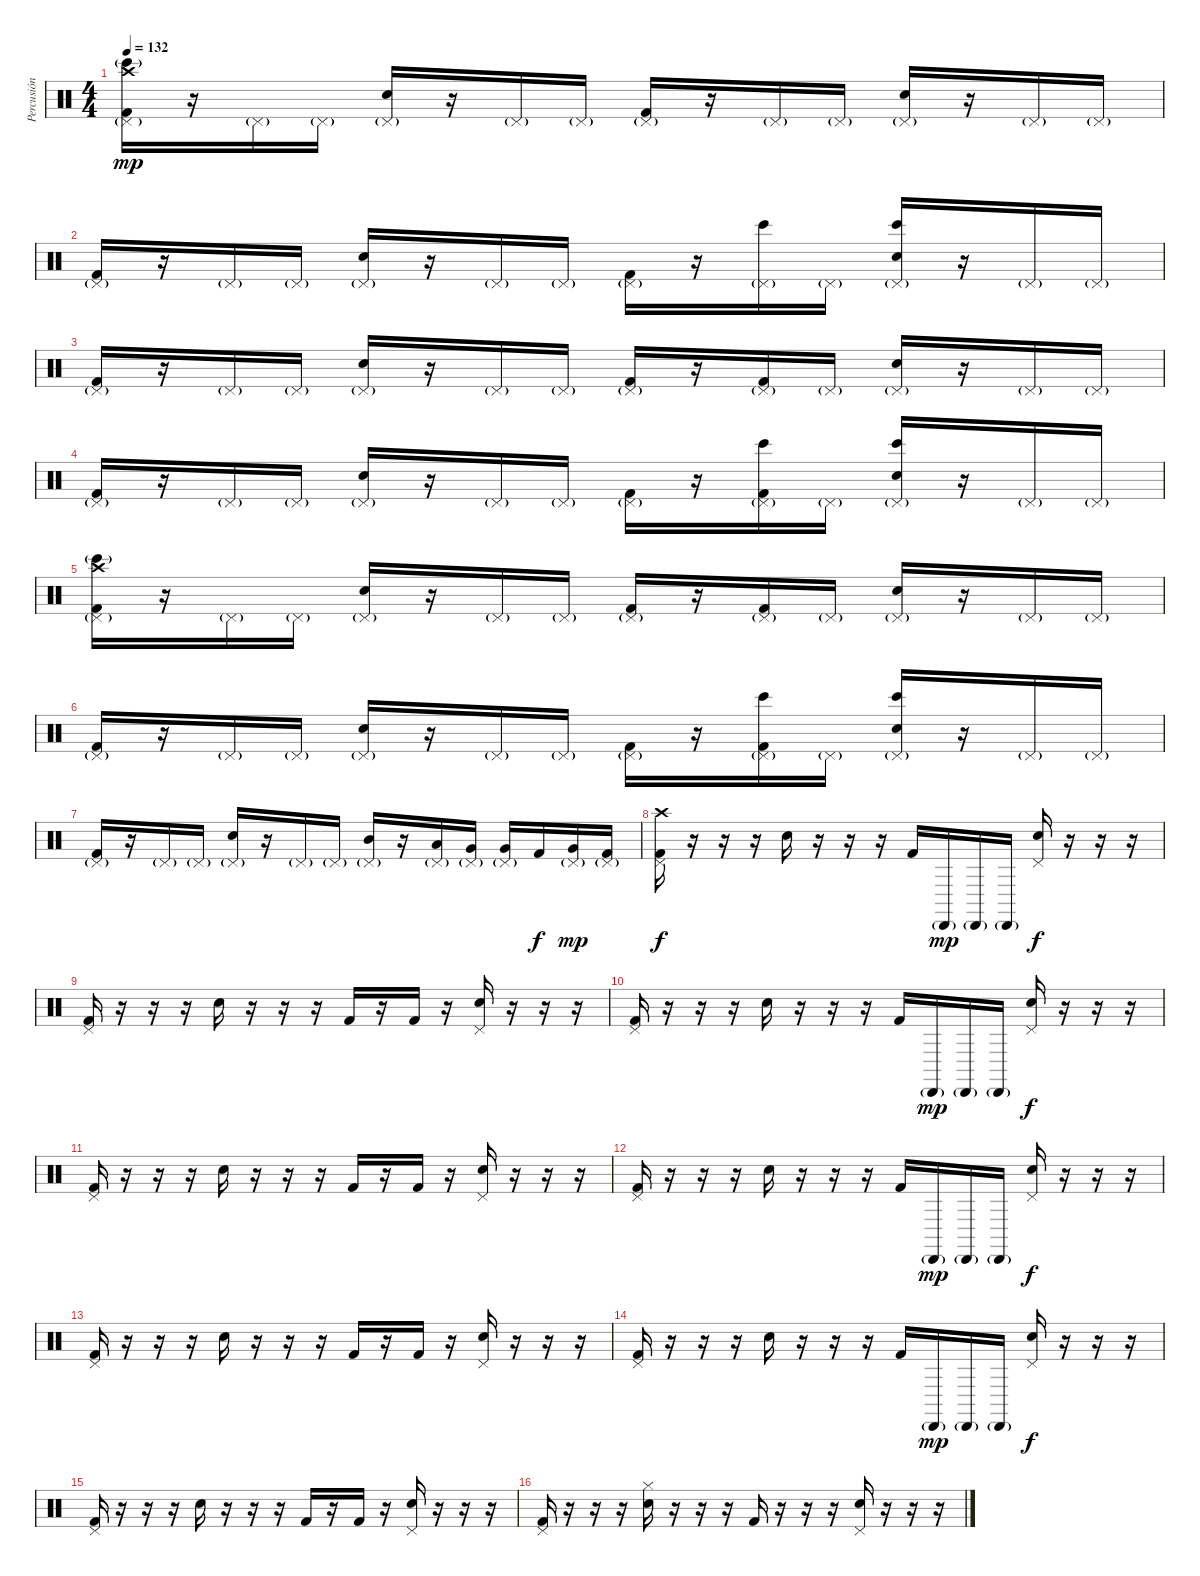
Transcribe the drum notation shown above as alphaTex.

\track ("Percusión" "Percusión") {instrument percussion}
\staff {score}
\articulation defaults
\ts (4 4)
\tempo 132
\clef neutral
\ks c
("Pedal Hi-Hat (hit)"{g} "Kick (hit) 2" "Bongo High (hit)"{g} "Crash high (hit)").16{dy mp} r.16 "Pedal Hi-Hat (hit)"{g}.16 "Pedal Hi-Hat (hit)"{g}.16 ("Pedal Hi-Hat (hit)"{g} "Electric Snare (hit)").16 r.16 "Pedal Hi-Hat (hit)"{g}.16 "Pedal Hi-Hat (hit)"{g}.16 ("Pedal Hi-Hat (hit)"{g} "Kick (hit) 2").16 r.16 "Pedal Hi-Hat (hit)"{g}.16 "Pedal Hi-Hat (hit)"{g}.16 ("Pedal Hi-Hat (hit)"{g} "Electric Snare (hit)").16 r.16 "Pedal Hi-Hat (hit)"{g}.16 "Pedal Hi-Hat (hit)"{g}.16 |
("Pedal Hi-Hat (hit)"{g} "Kick (hit) 2").16 r.16 "Pedal Hi-Hat (hit)"{g}.16 "Pedal Hi-Hat (hit)"{g}.16 ("Pedal Hi-Hat (hit)"{g} "Electric Snare (hit)").16 r.16 "Pedal Hi-Hat (hit)"{g}.16 "Pedal Hi-Hat (hit)"{g}.16 ("Pedal Hi-Hat (hit)"{g} "Kick (hit) 2").16 r.16 ("Pedal Hi-Hat (hit)"{g} "Bongo High (hit)").16 "Pedal Hi-Hat (hit)"{g}.16 ("Pedal Hi-Hat (hit)"{g} "Electric Snare (hit)" "Bongo High (hit)").16 r.16 "Pedal Hi-Hat (hit)"{g}.16 "Pedal Hi-Hat (hit)"{g}.16 |
("Pedal Hi-Hat (hit)"{g} "Kick (hit) 2").16 r.16 "Pedal Hi-Hat (hit)"{g}.16 "Pedal Hi-Hat (hit)"{g}.16 ("Pedal Hi-Hat (hit)"{g} "Electric Snare (hit)").16 r.16 "Pedal Hi-Hat (hit)"{g}.16 "Pedal Hi-Hat (hit)"{g}.16 ("Pedal Hi-Hat (hit)"{g} "Kick (hit) 2").16 r.16 ("Pedal Hi-Hat (hit)"{g} "Kick (hit) 2").16 "Pedal Hi-Hat (hit)"{g}.16 ("Pedal Hi-Hat (hit)"{g} "Electric Snare (hit)").16 r.16 "Pedal Hi-Hat (hit)"{g}.16 "Pedal Hi-Hat (hit)"{g}.16 |
("Pedal Hi-Hat (hit)"{g} "Kick (hit) 2").16 r.16 "Pedal Hi-Hat (hit)"{g}.16 "Pedal Hi-Hat (hit)"{g}.16 ("Pedal Hi-Hat (hit)"{g} "Electric Snare (hit)").16 r.16 "Pedal Hi-Hat (hit)"{g}.16 "Pedal Hi-Hat (hit)"{g}.16 ("Pedal Hi-Hat (hit)"{g} "Kick (hit) 2").16 r.16 ("Pedal Hi-Hat (hit)"{g} "Kick (hit) 2" "Bongo High (hit)").16 "Pedal Hi-Hat (hit)"{g}.16 ("Pedal Hi-Hat (hit)"{g} "Electric Snare (hit)" "Bongo High (hit)").16 r.16 "Pedal Hi-Hat (hit)"{g}.16 "Pedal Hi-Hat (hit)"{g}.16 |
("Pedal Hi-Hat (hit)"{g} "Kick (hit) 2" "Bongo High (hit)"{g} "Crash high (hit)").16 r.16 "Pedal Hi-Hat (hit)"{g}.16 "Pedal Hi-Hat (hit)"{g}.16 ("Pedal Hi-Hat (hit)"{g} "Electric Snare (hit)").16 r.16 "Pedal Hi-Hat (hit)"{g}.16 "Pedal Hi-Hat (hit)"{g}.16 ("Pedal Hi-Hat (hit)"{g} "Kick (hit) 2").16 r.16 ("Pedal Hi-Hat (hit)"{g} "Kick (hit) 2").16 "Pedal Hi-Hat (hit)"{g}.16 ("Pedal Hi-Hat (hit)"{g} "Electric Snare (hit)").16 r.16 "Pedal Hi-Hat (hit)"{g}.16 "Pedal Hi-Hat (hit)"{g}.16 |
("Pedal Hi-Hat (hit)"{g} "Kick (hit) 2").16 r.16 "Pedal Hi-Hat (hit)"{g}.16 "Pedal Hi-Hat (hit)"{g}.16 ("Pedal Hi-Hat (hit)"{g} "Electric Snare (hit)").16 r.16 "Pedal Hi-Hat (hit)"{g}.16 "Pedal Hi-Hat (hit)"{g}.16 ("Pedal Hi-Hat (hit)"{g} "Kick (hit) 2").16 r.16 ("Pedal Hi-Hat (hit)"{g} "Kick (hit) 2" "Bongo High (hit)").16 "Pedal Hi-Hat (hit)"{g}.16 ("Pedal Hi-Hat (hit)"{g} "Electric Snare (hit)" "Bongo High (hit)").16 r.16 "Pedal Hi-Hat (hit)"{g}.16 "Pedal Hi-Hat (hit)"{g}.16 |
("Pedal Hi-Hat (hit)"{g} "Kick (hit) 2").16 r.16 "Pedal Hi-Hat (hit)"{g}.16 "Pedal Hi-Hat (hit)"{g}.16 ("Pedal Hi-Hat (hit)"{g} "Electric Snare (hit)").16 r.16 "Pedal Hi-Hat (hit)"{g}.16 "Pedal Hi-Hat (hit)"{g}.16 ("Pedal Hi-Hat (hit)"{g} "Mid Tom (hit)").16 r.16 ("Pedal Hi-Hat (hit)"{g} "Low Tom (hit)").16 ("Pedal Hi-Hat (hit)"{g} "Very Low Tom (hit)").16 ("Pedal Hi-Hat (hit)"{g} "Very Low Tom (hit)").16 "Kick (hit) 2".16{dy f} ("Pedal Hi-Hat (hit)"{g} "Very Low Tom (hit)").16{dy mp} ("Pedal Hi-Hat (hit)"{g} "Kick (hit) 2").16 |
("Pedal Hi-Hat (hit)" "Kick (hit) 2" "Crash high (hit)").16{dy f} r.16 r.16 r.16 "Electric Snare (hit)".16 r.16 r.16 r.16 "Kick (hit) 2".16 "Cabasa (hit)"{g}.16{dy mp} "Cabasa (hit)"{g}.16 "Cabasa (hit)"{g}.16 ("Pedal Hi-Hat (hit)" "Electric Snare (hit)").16{dy f} r.16 r.16 r.16 |
("Pedal Hi-Hat (hit)" "Kick (hit) 2").16 r.16 r.16 r.16 "Electric Snare (hit)".16 r.16 r.16 r.16 "Kick (hit) 2".16 r.16 "Kick (hit) 2".16 r.16 ("Pedal Hi-Hat (hit)" "Electric Snare (hit)").16 r.16 r.16 r.16 |
("Pedal Hi-Hat (hit)" "Kick (hit) 2").16 r.16 r.16 r.16 "Electric Snare (hit)".16 r.16 r.16 r.16 "Kick (hit) 2".16 "Cabasa (hit)"{g}.16{dy mp} "Cabasa (hit)"{g}.16 "Cabasa (hit)"{g}.16 ("Pedal Hi-Hat (hit)" "Electric Snare (hit)").16{dy f} r.16 r.16 r.16 |
("Pedal Hi-Hat (hit)" "Kick (hit) 2").16 r.16 r.16 r.16 "Electric Snare (hit)".16 r.16 r.16 r.16 "Kick (hit) 2".16 r.16 "Kick (hit) 2".16 r.16 ("Pedal Hi-Hat (hit)" "Electric Snare (hit)").16 r.16 r.16 r.16 |
("Pedal Hi-Hat (hit)" "Kick (hit) 2").16 r.16 r.16 r.16 "Electric Snare (hit)".16 r.16 r.16 r.16 "Kick (hit) 2".16 "Cabasa (hit)"{g}.16{dy mp} "Cabasa (hit)"{g}.16 "Cabasa (hit)"{g}.16 ("Pedal Hi-Hat (hit)" "Electric Snare (hit)").16{dy f} r.16 r.16 r.16 |
("Pedal Hi-Hat (hit)" "Kick (hit) 2").16 r.16 r.16 r.16 "Electric Snare (hit)".16 r.16 r.16 r.16 "Kick (hit) 2".16 r.16 "Kick (hit) 2".16 r.16 ("Pedal Hi-Hat (hit)" "Electric Snare (hit)").16 r.16 r.16 r.16 |
("Pedal Hi-Hat (hit)" "Kick (hit) 2").16 r.16 r.16 r.16 "Electric Snare (hit)".16 r.16 r.16 r.16 "Kick (hit) 2".16 "Cabasa (hit)"{g}.16{dy mp} "Cabasa (hit)"{g}.16 "Cabasa (hit)"{g}.16 ("Pedal Hi-Hat (hit)" "Electric Snare (hit)").16{dy f} r.16 r.16 r.16 |
("Pedal Hi-Hat (hit)" "Kick (hit) 2").16 r.16 r.16 r.16 "Electric Snare (hit)".16 r.16 r.16 r.16 "Kick (hit) 2".16 r.16 "Kick (hit) 2".16 r.16 ("Pedal Hi-Hat (hit)" "Electric Snare (hit)").16 r.16 r.16 r.16 |
("Pedal Hi-Hat (hit)" "Kick (hit) 2").16 r.16 r.16 r.16 ("Hi-Hat (closed)" "Electric Snare (hit)").16 r.16 r.16 r.16 "Kick (hit) 2".16 r.16 r.16 r.16 ("Pedal Hi-Hat (hit)" "Electric Snare (hit)").16 r.16 r.16 r.16
